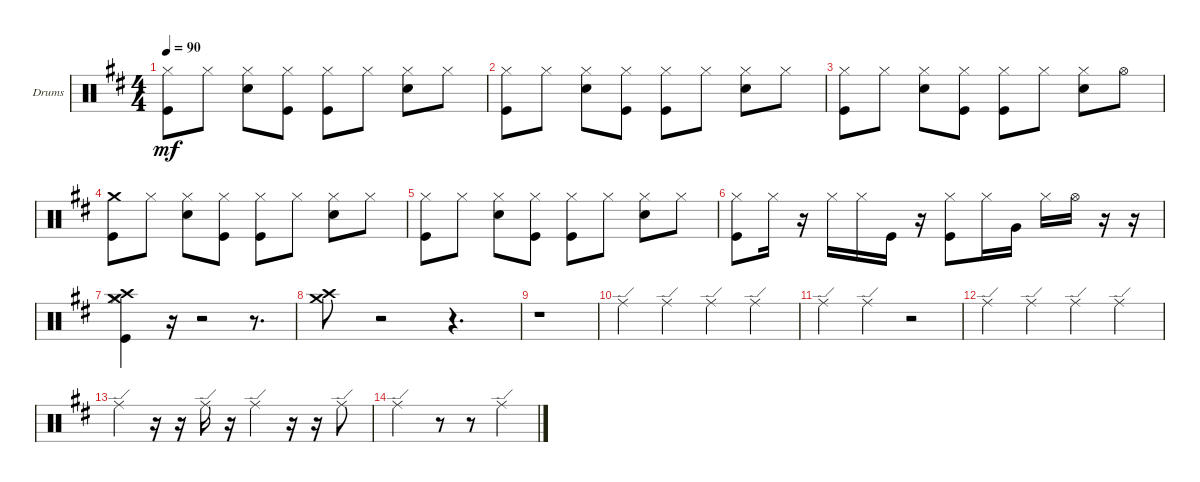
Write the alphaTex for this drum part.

\defaultSystemsLayout 4
\bracketExtendMode groupsimilarinstruments
\firstSystemTrackNameOrientation horizontal
\otherSystemsTrackNameOrientation horizontal
\track ("Drumkit" "Drums") {multiBarRest instrument percussion}
\staff {score}
\articulation defaults
\ts (4 4)
\tempo 90
\clef neutral
\scale
0.333333
\ks d
("Hi-Hat (closed)" "Kick (hit)").8{dy mf} "Hi-Hat (closed)".8 ("Hi-Hat (closed)" "Snare (hit) 2").8 ("Hi-Hat (closed)" "Kick (hit)").8 ("Hi-Hat (closed)" "Kick (hit)").8 "Hi-Hat (closed)".8 ("Hi-Hat (closed)" "Snare (hit) 2").8 "Hi-Hat (closed)".8 |
\scale
0.333333 ("Hi-Hat (closed)" "Kick (hit)").8 "Hi-Hat (closed)".8 ("Hi-Hat (closed)" "Snare (hit) 2").8 ("Hi-Hat (closed)" "Kick (hit)").8 ("Hi-Hat (closed)" "Kick (hit)").8 "Hi-Hat (closed)".8 ("Hi-Hat (closed)" "Snare (hit) 2").8 "Hi-Hat (closed)".8 |
\scale
0.333333 ("Hi-Hat (closed)" "Kick (hit)").8 "Hi-Hat (closed)".8 ("Hi-Hat (closed)" "Snare (hit) 2").8 ("Hi-Hat (closed)" "Kick (hit)").8 ("Hi-Hat (closed)" "Kick (hit)").8 "Hi-Hat (closed)".8 ("Hi-Hat (closed)" "Snare (hit) 2").8 "Hi-Hat (open)".8 |
\scale
0.333333 ("Crash medium (hit)" "Kick (hit)").8 "Hi-Hat (closed)".8 ("Hi-Hat (closed)" "Snare (hit) 2").8 ("Hi-Hat (closed)" "Kick (hit)").8 ("Hi-Hat (closed)" "Kick (hit)").8 "Hi-Hat (closed)".8 ("Hi-Hat (closed)" "Snare (hit) 2").8 "Hi-Hat (closed)".8 |
\scale
0.333333 ("Hi-Hat (closed)" "Kick (hit)").8 "Hi-Hat (closed)".8 ("Hi-Hat (closed)" "Snare (hit) 2").8 ("Hi-Hat (closed)" "Kick (hit)").8 ("Hi-Hat (closed)" "Kick (hit)").8 "Hi-Hat (closed)".8 ("Hi-Hat (closed)" "Snare (hit) 2").8 "Hi-Hat (closed)".8 |
\scale
0.333333 ("Hi-Hat (closed)" "Kick (hit)").8 "Hi-Hat (closed)".16 r.16 "Hi-Hat (closed)".16 "Hi-Hat (closed)".16 "Kick (hit)".16 r.16 ("Kick (hit)" "Hi-Hat (closed)").8 "Hi-Hat (closed)".16 "Very Low Tom (hit)".16 "Hi-Hat (closed)".16 "Hi-Hat (open)".16 r.16 r.16 |
\scale
0.333333 ("Hi-Hat (closed)" "Crash medium (hit)" "Crash high (hit)" "Kick (hit)").4 r.16 r.2 r.8{d} |
\scale
0.333333 ("Crash medium (hit)" "Crash high (hit)").8 r.2 r.4{d} |
\scale
0.333333 r.1 |
\scale
0.333333 "Ride (edge)".4 "Ride (edge)".4 "Ride (edge)".4 "Ride (edge)".4 |
\scale
0.333333 "Ride (edge)".4 "Ride (edge)".4 r.2 |
\scale
0.333333 "Ride (edge)".4 "Ride (edge)".4 "Ride (edge)".4 "Ride (edge)".4 |
\scale
0.333333 "Ride (edge)".4 r.16 r.16 "Ride (edge)".16 r.16 "Ride (edge)".4 r.16 r.16 "Ride (edge)".8 |
\scale
0.333333 "Ride (edge)".2 r.8 r.8 "Ride (edge)".4 |
\scale
0.333333
